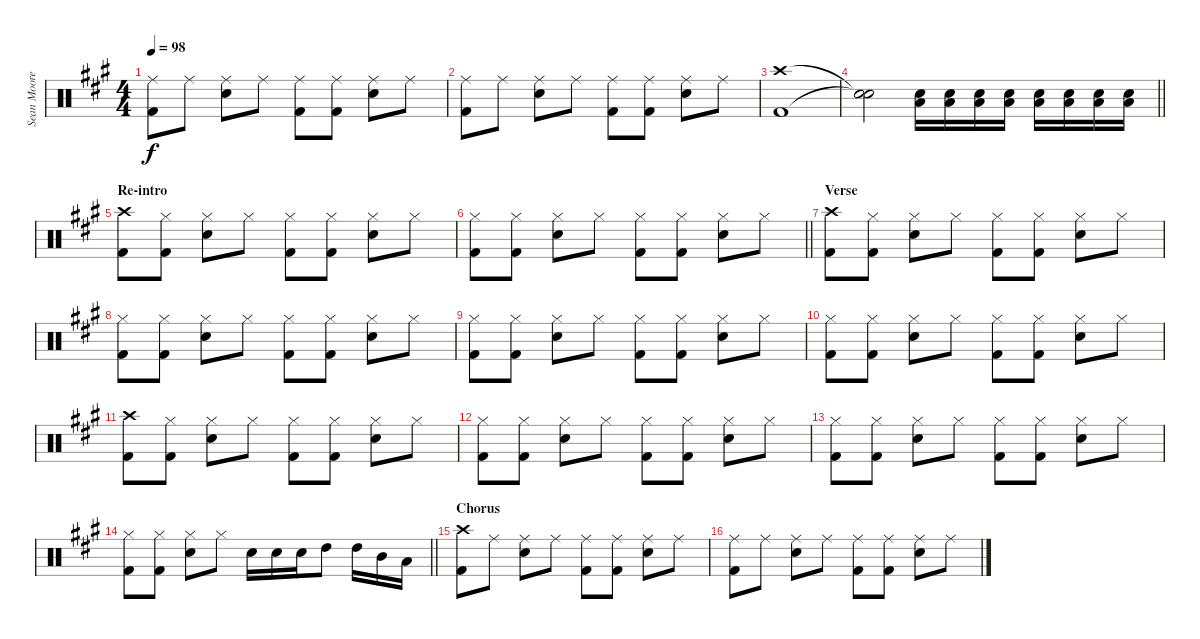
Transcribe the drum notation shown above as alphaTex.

\track ("Sean Moore (Drums)" "Sean Moore") {instrument percussion}
\staff {score}
\articulation defaults
\ts (4 4)
\tempo 98
\clef neutral
\ks a
("Ride (middle)" "Kick (hit) 2").8{dy f} "Ride (middle)".8 ("Ride (middle)" "Electric Snare (hit)").8 "Ride (middle)".8 ("Ride (middle)" "Kick (hit) 2").8 ("Ride (middle)" "Kick (hit) 2").8 ("Ride (middle)" "Electric Snare (hit)").8 "Ride (middle)".8 |
("Ride (middle)" "Kick (hit) 2").8 "Ride (middle)".8 ("Ride (middle)" "Electric Snare (hit)").8 "Ride (middle)".8 ("Ride (middle)" "Kick (hit) 2").8 ("Ride (middle)" "Kick (hit) 2").8 ("Ride (middle)" "Electric Snare (hit)").8 "Ride (middle)".8 |
("Crash high (hit)" "Kick (hit) 2").1 |
\barLineRight lightlight
("Snare (hit)"{t} "Snare (hit)"{t}).2 ("Electric Snare (hit)" "Low Floor Tom (hit)").16 ("Electric Snare (hit)" "Low Floor Tom (hit)").16 ("Electric Snare (hit)" "Low Floor Tom (hit)").16 ("Electric Snare (hit)" "Low Floor Tom (hit)").16 ("Electric Snare (hit)" "Low Floor Tom (hit)").16 ("Electric Snare (hit)" "Low Floor Tom (hit)").16 ("Electric Snare (hit)" "Low Floor Tom (hit)").16 ("Electric Snare (hit)" "Low Floor Tom (hit)").16 |
\section ("" "Re-intro")
("Crash high (hit)" "Kick (hit) 2").8 ("Hi-Hat (closed)" "Kick (hit) 2").8 ("Hi-Hat (closed)" "Electric Snare (hit)").8 "Hi-Hat (closed)".8 ("Hi-Hat (closed)" "Kick (hit) 2").8 ("Hi-Hat (closed)" "Kick (hit) 2").8 ("Hi-Hat (closed)" "Electric Snare (hit)").8 "Hi-Hat (closed)".8 |
\barLineRight lightlight
("Hi-Hat (closed)" "Kick (hit) 2").8 ("Hi-Hat (closed)" "Kick (hit) 2").8 ("Hi-Hat (closed)" "Electric Snare (hit)").8 "Hi-Hat (closed)".8 ("Hi-Hat (closed)" "Kick (hit) 2").8 ("Hi-Hat (closed)" "Kick (hit) 2").8 ("Hi-Hat (closed)" "Electric Snare (hit)").8 "Hi-Hat (closed)".8 |
\section ("" "Verse")
("Crash high (hit)" "Kick (hit) 2").8 ("Hi-Hat (closed)" "Kick (hit) 2").8 ("Hi-Hat (closed)" "Electric Snare (hit)").8 "Hi-Hat (closed)".8 ("Hi-Hat (closed)" "Kick (hit) 2").8 ("Hi-Hat (closed)" "Kick (hit) 2").8 ("Hi-Hat (closed)" "Electric Snare (hit)").8 "Hi-Hat (closed)".8 |
("Hi-Hat (closed)" "Kick (hit) 2").8 ("Hi-Hat (closed)" "Kick (hit) 2").8 ("Hi-Hat (closed)" "Electric Snare (hit)").8 "Hi-Hat (closed)".8 ("Hi-Hat (closed)" "Kick (hit) 2").8 ("Hi-Hat (closed)" "Kick (hit) 2").8 ("Hi-Hat (closed)" "Electric Snare (hit)").8 "Hi-Hat (closed)".8 |
("Hi-Hat (closed)" "Kick (hit) 2").8 ("Hi-Hat (closed)" "Kick (hit) 2").8 ("Hi-Hat (closed)" "Electric Snare (hit)").8 "Hi-Hat (closed)".8 ("Hi-Hat (closed)" "Kick (hit) 2").8 ("Hi-Hat (closed)" "Kick (hit) 2").8 ("Hi-Hat (closed)" "Electric Snare (hit)").8 "Hi-Hat (closed)".8 |
("Hi-Hat (closed)" "Kick (hit) 2").8 ("Hi-Hat (closed)" "Kick (hit) 2").8 ("Hi-Hat (closed)" "Electric Snare (hit)").8 "Hi-Hat (closed)".8 ("Hi-Hat (closed)" "Kick (hit) 2").8 ("Hi-Hat (closed)" "Kick (hit) 2").8 ("Hi-Hat (closed)" "Electric Snare (hit)").8 "Hi-Hat (closed)".8 |
("Crash high (hit)" "Kick (hit) 2").8 ("Hi-Hat (closed)" "Kick (hit) 2").8 ("Hi-Hat (closed)" "Electric Snare (hit)").8 "Hi-Hat (closed)".8 ("Hi-Hat (closed)" "Kick (hit) 2").8 ("Hi-Hat (closed)" "Kick (hit) 2").8 ("Hi-Hat (closed)" "Electric Snare (hit)").8 "Hi-Hat (closed)".8 |
("Hi-Hat (closed)" "Kick (hit) 2").8 ("Hi-Hat (closed)" "Kick (hit) 2").8 ("Hi-Hat (closed)" "Electric Snare (hit)").8 "Hi-Hat (closed)".8 ("Hi-Hat (closed)" "Kick (hit) 2").8 ("Hi-Hat (closed)" "Kick (hit) 2").8 ("Hi-Hat (closed)" "Electric Snare (hit)").8 "Hi-Hat (closed)".8 |
("Hi-Hat (closed)" "Kick (hit) 2").8 ("Hi-Hat (closed)" "Kick (hit) 2").8 ("Hi-Hat (closed)" "Electric Snare (hit)").8 "Hi-Hat (closed)".8 ("Hi-Hat (closed)" "Kick (hit) 2").8 ("Hi-Hat (closed)" "Kick (hit) 2").8 ("Hi-Hat (closed)" "Electric Snare (hit)").8 "Hi-Hat (closed)".8 |
\barLineRight lightlight
("Hi-Hat (closed)" "Kick (hit) 2").8 ("Hi-Hat (closed)" "Kick (hit) 2").8 ("Hi-Hat (closed)" "Electric Snare (hit)").8 "Hi-Hat (closed)".8 "Electric Snare (hit)".16 "Electric Snare (hit)".16 "Electric Snare (hit)".16 "High Tom (hit)".8 "High Tom (hit)".16 "Mid Tom (hit)".16 "Low Tom (hit)".16 |
\section ("" "Chorus")
("Crash high (hit)" "Kick (hit) 2").8 "Ride (middle)".8 ("Ride (middle)" "Electric Snare (hit)").8 "Ride (middle)".8 ("Ride (middle)" "Kick (hit) 2").8 ("Ride (middle)" "Kick (hit) 2").8 ("Ride (middle)" "Electric Snare (hit)").8 "Ride (middle)".8 |
("Ride (middle)" "Kick (hit) 2").8 "Ride (middle)".8 ("Ride (middle)" "Electric Snare (hit)").8 "Ride (middle)".8 ("Ride (middle)" "Kick (hit) 2").8 ("Ride (middle)" "Kick (hit) 2").8 ("Ride (middle)" "Electric Snare (hit)").8 "Ride (middle)".8
